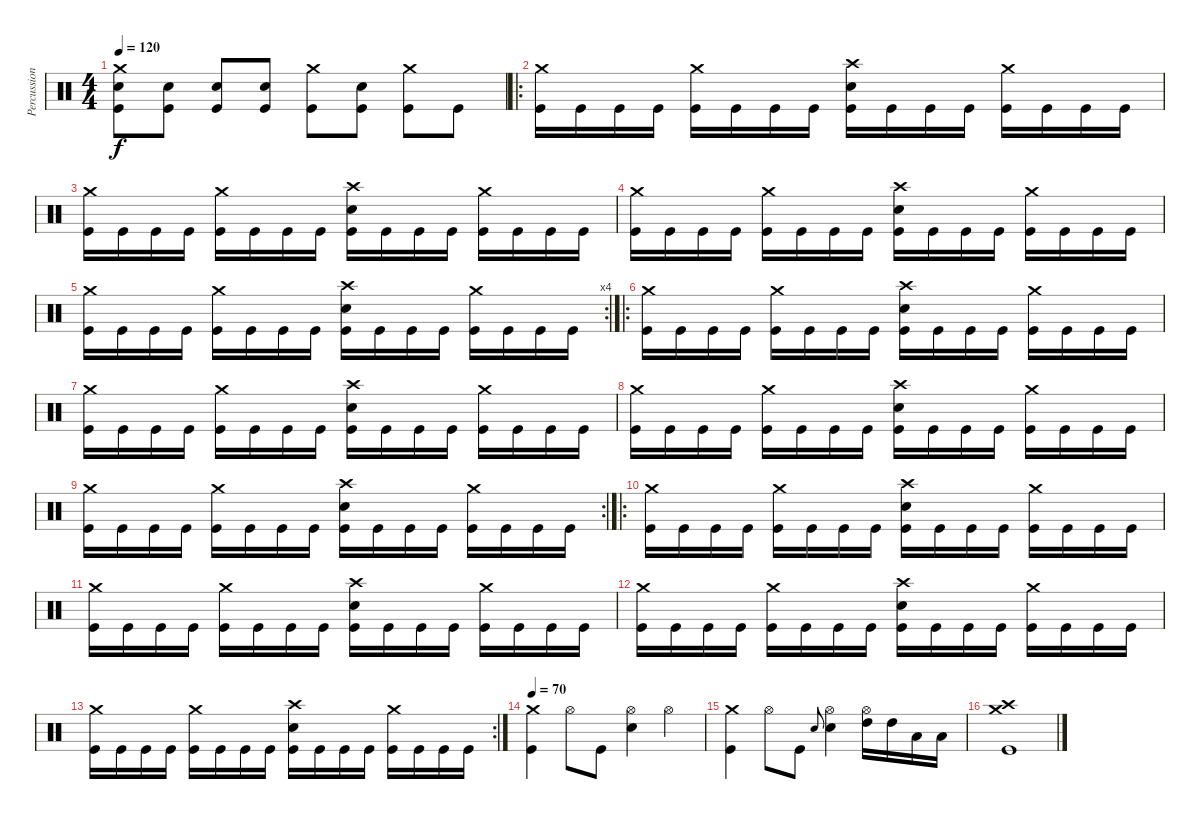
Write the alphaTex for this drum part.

\track ("Percussion" "Percussion") {instrument percussion}
\staff {score}
\articulation defaults
\ts (4 4)
\tempo 120
\clef neutral
\ks c
("Crash medium (hit)" "Snare (hit) 2" "Kick (hit)").8{dy f} ("Snare (hit) 2" "Kick (hit)").8 ("Snare (hit) 2" "Kick (hit)").8 ("Snare (hit) 2" "Kick (hit)").8 ("Crash medium (hit)" "Kick (hit)").8 ("Snare (hit) 2" "Kick (hit)").8 ("Crash medium (hit)" "Kick (hit)").8 "Kick (hit)".8 |
\ro
("Crash medium (hit)" "Kick (hit)").16 "Kick (hit)".16 "Kick (hit)".16 "Kick (hit)".16 ("Crash medium (hit)" "Kick (hit)").16 "Kick (hit)".16 "Kick (hit)".16 "Kick (hit)".16 ("Crash high (hit)" "Snare (hit) 2" "Kick (hit)").16 "Kick (hit)".16 "Kick (hit)".16 "Kick (hit)".16 ("Crash medium (hit)" "Kick (hit)").16 "Kick (hit)".16 "Kick (hit)".16 "Kick (hit)".16 |
("Crash medium (hit)" "Kick (hit)").16 "Kick (hit)".16 "Kick (hit)".16 "Kick (hit)".16 ("Crash medium (hit)" "Kick (hit)").16 "Kick (hit)".16 "Kick (hit)".16 "Kick (hit)".16 ("Crash high (hit)" "Snare (hit) 2" "Kick (hit)").16 "Kick (hit)".16 "Kick (hit)".16 "Kick (hit)".16 ("Crash medium (hit)" "Kick (hit)").16 "Kick (hit)".16 "Kick (hit)".16 "Kick (hit)".16 |
("Crash medium (hit)" "Kick (hit)").16 "Kick (hit)".16 "Kick (hit)".16 "Kick (hit)".16 ("Crash medium (hit)" "Kick (hit)").16 "Kick (hit)".16 "Kick (hit)".16 "Kick (hit)".16 ("Crash high (hit)" "Snare (hit) 2" "Kick (hit)").16 "Kick (hit)".16 "Kick (hit)".16 "Kick (hit)".16 ("Crash medium (hit)" "Kick (hit)").16 "Kick (hit)".16 "Kick (hit)".16 "Kick (hit)".16 |
\rc 4
("Crash medium (hit)" "Kick (hit)").16 "Kick (hit)".16 "Kick (hit)".16 "Kick (hit)".16 ("Crash medium (hit)" "Kick (hit)").16 "Kick (hit)".16 "Kick (hit)".16 "Kick (hit)".16 ("Crash high (hit)" "Snare (hit) 2" "Kick (hit)").16 "Kick (hit)".16 "Kick (hit)".16 "Kick (hit)".16 ("Crash medium (hit)" "Kick (hit)").16 "Kick (hit)".16 "Kick (hit)".16 "Kick (hit)".16 |
\ro
("Crash medium (hit)" "Kick (hit)").16 "Kick (hit)".16 "Kick (hit)".16 "Kick (hit)".16 ("Crash medium (hit)" "Kick (hit)").16 "Kick (hit)".16 "Kick (hit)".16 "Kick (hit)".16 ("Crash high (hit)" "Snare (hit) 2" "Kick (hit)").16 "Kick (hit)".16 "Kick (hit)".16 "Kick (hit)".16 ("Crash medium (hit)" "Kick (hit)").16 "Kick (hit)".16 "Kick (hit)".16 "Kick (hit)".16 |
("Crash medium (hit)" "Kick (hit)").16 "Kick (hit)".16 "Kick (hit)".16 "Kick (hit)".16 ("Crash medium (hit)" "Kick (hit)").16 "Kick (hit)".16 "Kick (hit)".16 "Kick (hit)".16 ("Crash high (hit)" "Snare (hit) 2" "Kick (hit)").16 "Kick (hit)".16 "Kick (hit)".16 "Kick (hit)".16 ("Crash medium (hit)" "Kick (hit)").16 "Kick (hit)".16 "Kick (hit)".16 "Kick (hit)".16 |
("Crash medium (hit)" "Kick (hit)").16 "Kick (hit)".16 "Kick (hit)".16 "Kick (hit)".16 ("Crash medium (hit)" "Kick (hit)").16 "Kick (hit)".16 "Kick (hit)".16 "Kick (hit)".16 ("Crash high (hit)" "Snare (hit) 2" "Kick (hit)").16 "Kick (hit)".16 "Kick (hit)".16 "Kick (hit)".16 ("Crash medium (hit)" "Kick (hit)").16 "Kick (hit)".16 "Kick (hit)".16 "Kick (hit)".16 |
\rc 2
("Crash medium (hit)" "Kick (hit)").16 "Kick (hit)".16 "Kick (hit)".16 "Kick (hit)".16 ("Crash medium (hit)" "Kick (hit)").16 "Kick (hit)".16 "Kick (hit)".16 "Kick (hit)".16 ("Crash high (hit)" "Snare (hit) 2" "Kick (hit)").16 "Kick (hit)".16 "Kick (hit)".16 "Kick (hit)".16 ("Crash medium (hit)" "Kick (hit)").16 "Kick (hit)".16 "Kick (hit)".16 "Kick (hit)".16 |
\ro
("Crash medium (hit)" "Kick (hit)").16 "Kick (hit)".16 "Kick (hit)".16 "Kick (hit)".16 ("Crash medium (hit)" "Kick (hit)").16 "Kick (hit)".16 "Kick (hit)".16 "Kick (hit)".16 ("Crash high (hit)" "Snare (hit) 2" "Kick (hit)").16 "Kick (hit)".16 "Kick (hit)".16 "Kick (hit)".16 ("Crash medium (hit)" "Kick (hit)").16 "Kick (hit)".16 "Kick (hit)".16 "Kick (hit)".16 |
("Crash medium (hit)" "Kick (hit)").16 "Kick (hit)".16 "Kick (hit)".16 "Kick (hit)".16 ("Crash medium (hit)" "Kick (hit)").16 "Kick (hit)".16 "Kick (hit)".16 "Kick (hit)".16 ("Crash high (hit)" "Snare (hit) 2" "Kick (hit)").16 "Kick (hit)".16 "Kick (hit)".16 "Kick (hit)".16 ("Crash medium (hit)" "Kick (hit)").16 "Kick (hit)".16 "Kick (hit)".16 "Kick (hit)".16 |
("Crash medium (hit)" "Kick (hit)").16 "Kick (hit)".16 "Kick (hit)".16 "Kick (hit)".16 ("Crash medium (hit)" "Kick (hit)").16 "Kick (hit)".16 "Kick (hit)".16 "Kick (hit)".16 ("Crash high (hit)" "Snare (hit) 2" "Kick (hit)").16 "Kick (hit)".16 "Kick (hit)".16 "Kick (hit)".16 ("Crash medium (hit)" "Kick (hit)").16 "Kick (hit)".16 "Kick (hit)".16 "Kick (hit)".16 |
\rc 2
("Crash medium (hit)" "Kick (hit)").16 "Kick (hit)".16 "Kick (hit)".16 "Kick (hit)".16 ("Crash medium (hit)" "Kick (hit)").16 "Kick (hit)".16 "Kick (hit)".16 "Kick (hit)".16 ("Crash high (hit)" "Snare (hit) 2" "Kick (hit)").16 "Kick (hit)".16 "Kick (hit)".16 "Kick (hit)".16 ("Crash medium (hit)" "Kick (hit)").16 "Kick (hit)".16 "Kick (hit)".16 "Kick (hit)".16 |
\tempo 70
("Crash medium (hit)" "Kick (hit)").4 "Hi-Hat (open)".8 "Kick (hit)".8 ("Hi-Hat (open)" "Snare (hit) 2").4 "Hi-Hat (open)".4 |
("Crash medium (hit)" "Kick (hit)").4 "Hi-Hat (open)".8 "Kick (hit)".8 "Snare (hit) 2".8{gr onbeat} ("Hi-Hat (open)" "Snare (hit) 2").4 ("Hi-Hat (open)" "High Tom (hit)").16 "High Tom (hit)".16 "Low Tom (hit)".16 "Low Tom (hit)".16 |
("Crash medium (hit)" "Crash high (hit)" "Kick (hit)").1
